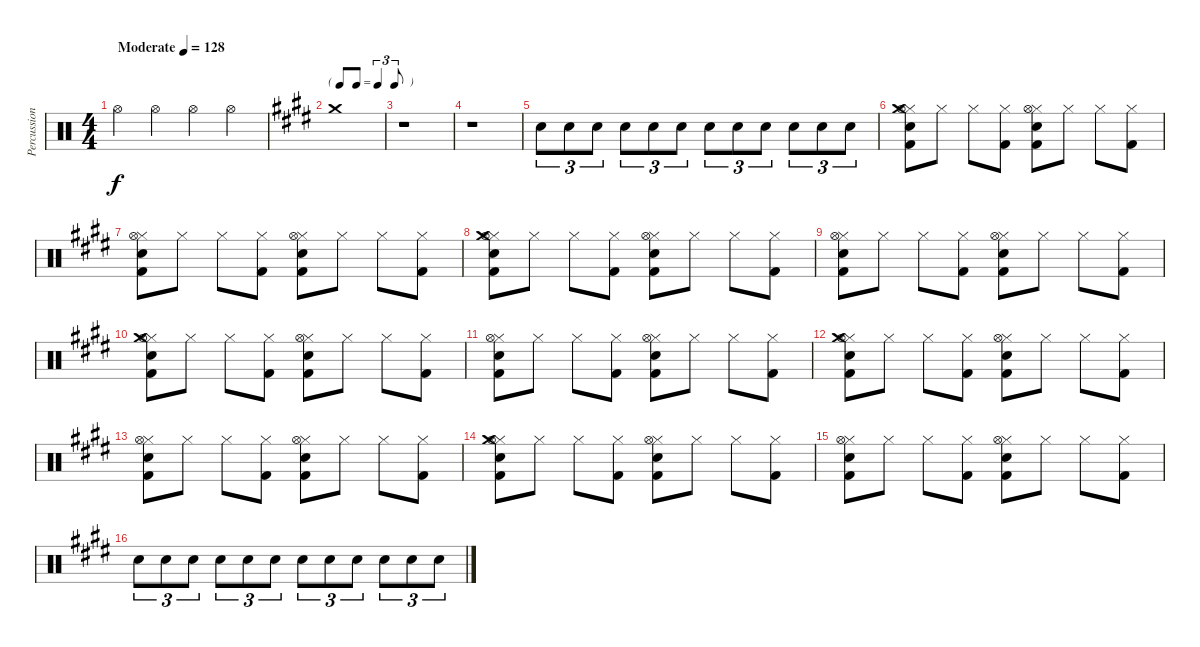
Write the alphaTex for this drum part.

\track ("Percussion" "Percussion") {instrument percussion}
\staff {score}
\articulation defaults
\ts (4 4)
\tempo (128 "Moderate")
\clef neutral
\ks c "Hi-Hat (open)".4{dy f} "Hi-Hat (open)".4 "Hi-Hat (open)".4 "Hi-Hat (open)".4
|
\tf triplet8th
\ks e "Crash medium (hit)".1{volume 0}
|
r.1 |
r.1{volume 12} |
"Electric Snare (hit)".8{tu (3 2)} "Electric Snare (hit)".8{tu (3 2)} "Electric Snare (hit)".8{tu (3 2)} "Electric Snare (hit)".8{tu (3 2)} "Electric Snare (hit)".8{tu (3 2)} "Electric Snare (hit)".8{tu (3 2)} "Electric Snare (hit)".8{tu (3 2)} "Electric Snare (hit)".8{tu (3 2)} "Electric Snare (hit)".8{tu (3 2)} "Electric Snare (hit)".8{tu (3 2)} "Electric Snare (hit)".8{tu (3 2)} "Electric Snare (hit)".8{tu (3 2)} |
("Kick (hit) 2" "Electric Snare (hit)" "Hi-Hat (closed)" "Crash medium (hit)" "Hi-Hat (open)").8 "Hi-Hat (closed)".8 "Hi-Hat (closed)".8 ("Kick (hit) 2" "Hi-Hat (closed)").8 ("Kick (hit) 2" "Electric Snare (hit)" "Hi-Hat (closed)" "Hi-Hat (open)").8 "Hi-Hat (closed)".8 "Hi-Hat (closed)".8 ("Kick (hit) 2" "Hi-Hat (closed)").8 |
("Kick (hit) 2" "Electric Snare (hit)" "Hi-Hat (closed)" "Hi-Hat (open)").8 "Hi-Hat (closed)".8 "Hi-Hat (closed)".8 ("Kick (hit) 2" "Hi-Hat (closed)").8 ("Kick (hit) 2" "Electric Snare (hit)" "Hi-Hat (closed)" "Hi-Hat (open)").8 "Hi-Hat (closed)".8 "Hi-Hat (closed)".8 ("Kick (hit) 2" "Hi-Hat (closed)").8 |
("Kick (hit) 2" "Electric Snare (hit)" "Hi-Hat (closed)" "Crash medium (hit)" "Hi-Hat (open)").8 "Hi-Hat (closed)".8 "Hi-Hat (closed)".8 ("Kick (hit) 2" "Hi-Hat (closed)").8 ("Kick (hit) 2" "Electric Snare (hit)" "Hi-Hat (closed)" "Hi-Hat (open)").8 "Hi-Hat (closed)".8 "Hi-Hat (closed)".8 ("Kick (hit) 2" "Hi-Hat (closed)").8 |
("Kick (hit) 2" "Electric Snare (hit)" "Hi-Hat (closed)" "Hi-Hat (open)").8 "Hi-Hat (closed)".8 "Hi-Hat (closed)".8 ("Kick (hit) 2" "Hi-Hat (closed)").8 ("Kick (hit) 2" "Electric Snare (hit)" "Hi-Hat (closed)" "Hi-Hat (open)").8 "Hi-Hat (closed)".8 "Hi-Hat (closed)".8 ("Kick (hit) 2" "Hi-Hat (closed)").8 |
("Kick (hit) 2" "Electric Snare (hit)" "Hi-Hat (closed)" "Crash medium (hit)" "Hi-Hat (open)").8 "Hi-Hat (closed)".8 "Hi-Hat (closed)".8 ("Kick (hit) 2" "Hi-Hat (closed)").8 ("Kick (hit) 2" "Electric Snare (hit)" "Hi-Hat (closed)" "Hi-Hat (open)").8 "Hi-Hat (closed)".8 "Hi-Hat (closed)".8 ("Kick (hit) 2" "Hi-Hat (closed)").8 |
("Kick (hit) 2" "Electric Snare (hit)" "Hi-Hat (closed)" "Hi-Hat (open)").8 "Hi-Hat (closed)".8 "Hi-Hat (closed)".8 ("Kick (hit) 2" "Hi-Hat (closed)").8 ("Kick (hit) 2" "Electric Snare (hit)" "Hi-Hat (closed)" "Hi-Hat (open)").8 "Hi-Hat (closed)".8 "Hi-Hat (closed)".8 ("Kick (hit) 2" "Hi-Hat (closed)").8 |
("Kick (hit) 2" "Electric Snare (hit)" "Hi-Hat (closed)" "Crash medium (hit)" "Hi-Hat (open)").8 "Hi-Hat (closed)".8 "Hi-Hat (closed)".8 ("Kick (hit) 2" "Hi-Hat (closed)").8 ("Kick (hit) 2" "Electric Snare (hit)" "Hi-Hat (closed)" "Hi-Hat (open)").8 "Hi-Hat (closed)".8 "Hi-Hat (closed)".8 ("Kick (hit) 2" "Hi-Hat (closed)").8 |
("Kick (hit) 2" "Electric Snare (hit)" "Hi-Hat (closed)" "Hi-Hat (open)").8 "Hi-Hat (closed)".8 "Hi-Hat (closed)".8 ("Kick (hit) 2" "Hi-Hat (closed)").8 ("Kick (hit) 2" "Electric Snare (hit)" "Hi-Hat (closed)" "Hi-Hat (open)").8 "Hi-Hat (closed)".8 "Hi-Hat (closed)".8 ("Kick (hit) 2" "Hi-Hat (closed)").8 |
("Kick (hit) 2" "Electric Snare (hit)" "Hi-Hat (closed)" "Crash medium (hit)" "Hi-Hat (open)").8 "Hi-Hat (closed)".8 "Hi-Hat (closed)".8 ("Kick (hit) 2" "Hi-Hat (closed)").8 ("Kick (hit) 2" "Electric Snare (hit)" "Hi-Hat (closed)" "Hi-Hat (open)").8 "Hi-Hat (closed)".8 "Hi-Hat (closed)".8 ("Kick (hit) 2" "Hi-Hat (closed)").8 |
("Kick (hit) 2" "Electric Snare (hit)" "Hi-Hat (closed)" "Hi-Hat (open)").8 "Hi-Hat (closed)".8 "Hi-Hat (closed)".8 ("Kick (hit) 2" "Hi-Hat (closed)").8 ("Kick (hit) 2" "Electric Snare (hit)" "Hi-Hat (closed)" "Hi-Hat (open)").8 "Hi-Hat (closed)".8 "Hi-Hat (closed)".8 ("Kick (hit) 2" "Hi-Hat (closed)").8 |
"Electric Snare (hit)".8{tu (3 2)} "Electric Snare (hit)".8{tu (3 2)} "Electric Snare (hit)".8{tu (3 2)} "Electric Snare (hit)".8{tu (3 2)} "Electric Snare (hit)".8{tu (3 2)} "Electric Snare (hit)".8{tu (3 2)} "Electric Snare (hit)".8{tu (3 2)} "Electric Snare (hit)".8{tu (3 2)} "Electric Snare (hit)".8{tu (3 2)} "Electric Snare (hit)".8{tu (3 2)} "Electric Snare (hit)".8{tu (3 2)} "Electric Snare (hit)".8{tu (3 2)}
